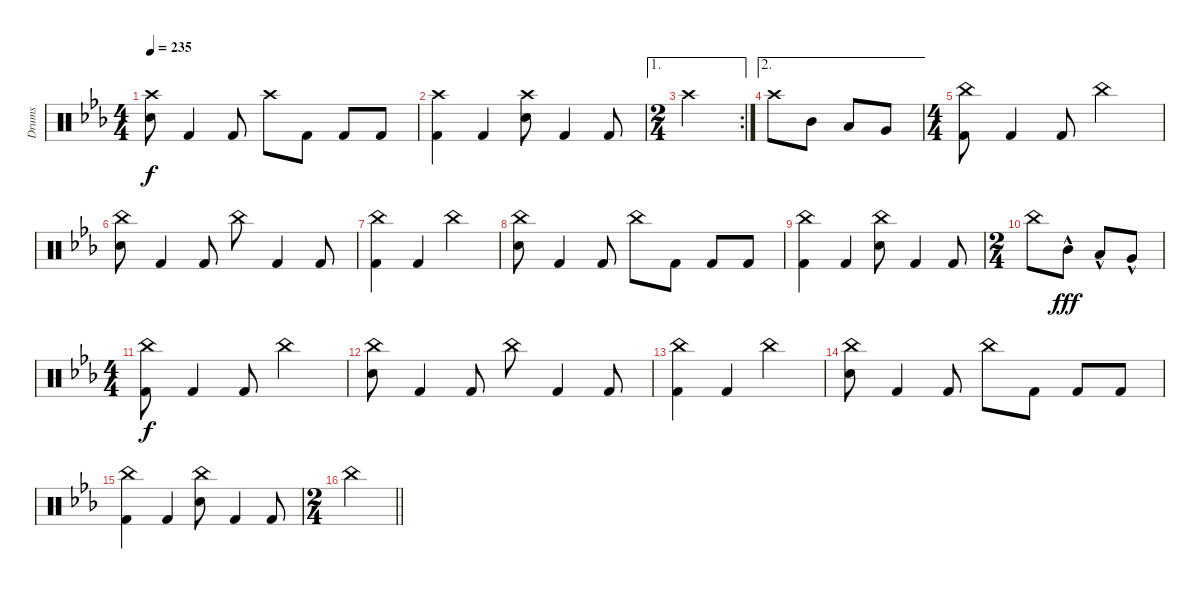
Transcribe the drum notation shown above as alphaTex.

\track ("Drums" "Drums") {instrument percussion}
\staff {score}
\articulation defaults
\ts (4 4)
\tempo 235
\clef neutral
\ks cminor
("Crash high (hit)" "Electric Snare (hit)").8{dy f} "Kick (hit) 2".4 "Kick (hit) 2".8 "Crash high (hit)".8 "Kick (hit) 2".8 "Kick (hit) 2".8 "Kick (hit) 2".8 |
("Crash high (hit)" "Kick (hit) 2").4 "Kick (hit) 2".4 ("Crash high (hit)" "Electric Snare (hit)").8 "Kick (hit) 2".4 "Kick (hit) 2".8 |
\ae 1
\rc 2
\ts (2 4)
"Crash high (hit)".2 |
\ae 2 "Crash high (hit)".8 "Mid Tom (hit)".8 "Low Tom (hit)".8 "Very Low Tom (hit)".8
|
\ts (4 4)
("China (hit)" "Kick (hit) 2").8 "Kick (hit) 2".4 "Kick (hit) 2".8 "China (hit)".2 |
("China (hit)" "Electric Snare (hit)").8 "Kick (hit) 2".4 "Kick (hit) 2".8 "China (hit)".8 "Kick (hit) 2".4 "Kick (hit) 2".8 |
("China (hit)" "Kick (hit) 2").4 "Kick (hit) 2".4 "China (hit)".2 |
("China (hit)" "Electric Snare (hit)").8 "Kick (hit) 2".4 "Kick (hit) 2".8 "China (hit)".8 "Kick (hit) 2".8 "Kick (hit) 2".8 "Kick (hit) 2".8 |
("China (hit)" "Kick (hit) 2").4 "Kick (hit) 2".4 ("China (hit)" "Electric Snare (hit)").8 "Kick (hit) 2".4 "Kick (hit) 2".8 |
\ts (2 4)
"China (hit)".8 "Mid Tom (hit)"{hac}.8{dy fff} "Low Tom (hit)"{hac}.8 "Very Low Tom (hit)"{hac}.8 |
\ts (4 4)
("China (hit)" "Kick (hit) 2").8{dy f} "Kick (hit) 2".4 "Kick (hit) 2".8 "China (hit)".2 |
("China (hit)" "Electric Snare (hit)").8 "Kick (hit) 2".4 "Kick (hit) 2".8 "China (hit)".8 "Kick (hit) 2".4 "Kick (hit) 2".8 |
("China (hit)" "Kick (hit) 2").4 "Kick (hit) 2".4 "China (hit)".2 |
("China (hit)" "Electric Snare (hit)").8 "Kick (hit) 2".4 "Kick (hit) 2".8 "China (hit)".8 "Kick (hit) 2".8 "Kick (hit) 2".8 "Kick (hit) 2".8 |
("China (hit)" "Kick (hit) 2").4 "Kick (hit) 2".4 ("China (hit)" "Electric Snare (hit)").8 "Kick (hit) 2".4 "Kick (hit) 2".8 |
\ts (2 4)
\barLineRight lightlight "China (hit)".2
